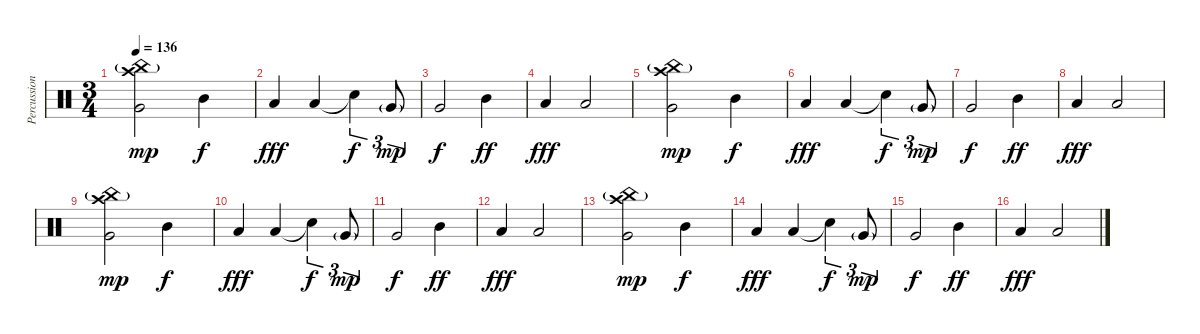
\track ("Percussions / Stephen Van Haestregt" "Percussion") {instrument percussion}
\staff {score}
\articulation defaults
\ts (3 4)
\tempo 136
\clef neutral
\ks c
("Crash high (hit)" "China (hit)"{g} "Very Low Tom (hit)").2{dy mp} "Mid Tom (hit)".4{dy f} |
"Low Tom (hit)".4{dy fff} "Low Tom (hit)".4 "Snare (hit)"{t}.4{tu (3 2) dy f} "Very Low Tom (hit)"{g}.8{tu (3 2) dy mp} |
"Very Low Tom (hit)".2{dy f} "Mid Tom (hit)".4{dy ff} |
"Low Tom (hit)".4{dy fff} "Low Tom (hit)".2 |
("Crash high (hit)" "China (hit)"{g} "Very Low Tom (hit)").2{dy mp} "Mid Tom (hit)".4{dy f} |
"Low Tom (hit)".4{dy fff} "Low Tom (hit)".4 "Snare (hit)"{t}.4{tu (3 2) dy f} "Very Low Tom (hit)"{g}.8{tu (3 2) dy mp} |
"Very Low Tom (hit)".2{dy f} "Mid Tom (hit)".4{dy ff} |
"Low Tom (hit)".4{dy fff} "Low Tom (hit)".2 |
("Crash high (hit)" "China (hit)"{g} "Very Low Tom (hit)").2{dy mp} "Mid Tom (hit)".4{dy f} |
"Low Tom (hit)".4{dy fff} "Low Tom (hit)".4 "Snare (hit)"{t}.4{tu (3 2) dy f} "Very Low Tom (hit)"{g}.8{tu (3 2) dy mp} |
"Very Low Tom (hit)".2{dy f} "Mid Tom (hit)".4{dy ff} |
"Low Tom (hit)".4{dy fff} "Low Tom (hit)".2 |
("Crash high (hit)" "China (hit)"{g} "Very Low Tom (hit)").2{dy mp} "Mid Tom (hit)".4{dy f} |
"Low Tom (hit)".4{dy fff} "Low Tom (hit)".4 "Snare (hit)"{t}.4{tu (3 2) dy f} "Very Low Tom (hit)"{g}.8{tu (3 2) dy mp} |
"Very Low Tom (hit)".2{dy f} "Mid Tom (hit)".4{dy ff} |
"Low Tom (hit)".4{dy fff} "Low Tom (hit)".2
